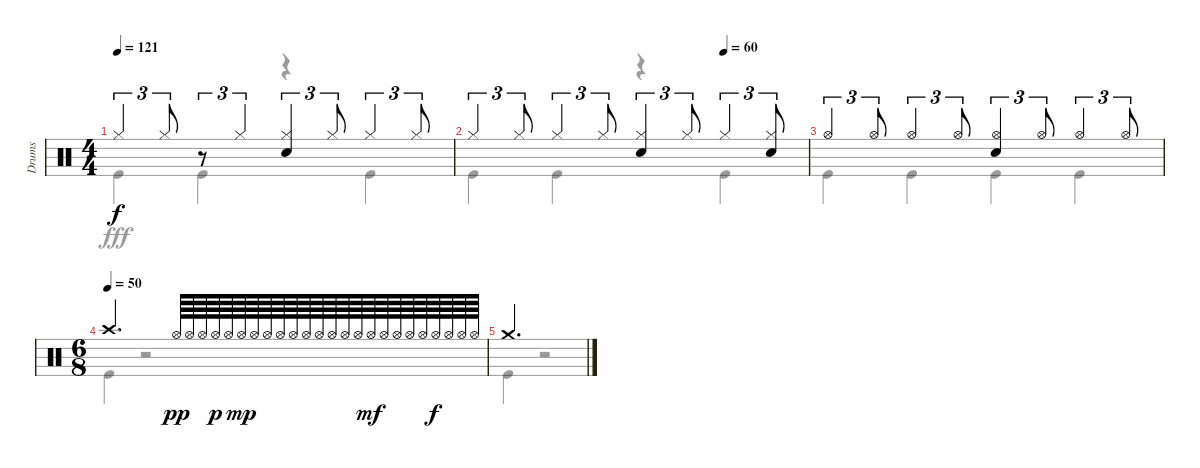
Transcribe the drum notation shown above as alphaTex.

\track ("Drums" "Drums") {instrument percussion}
\staff {score}
\articulation defaults
\voice
\ts (4 4)
\tempo 121
\clef neutral
\ks c "Hi-Hat (closed)".4{tu (3 2) dy f} "Hi-Hat (closed)".8{tu (3 2)}
r.8{tu (3 2)} "Hi-Hat (closed)".4{tu (3 2)} ("Hi-Hat (closed)" "Snare (hit) 2").4{tu (3 2)} "Hi-Hat (closed)".8{tu (3 2)} "Hi-Hat (closed)".4{tu (3 2)} "Hi-Hat (closed)".8{tu (3 2)} |
\tempo (60 0.75)
"Hi-Hat (closed)".4{tu (3 2)} "Hi-Hat (closed)".8{tu (3 2)} "Hi-Hat (closed)".4{tu (3 2)} "Hi-Hat (closed)".8{tu (3 2)} ("Hi-Hat (closed)" "Snare (hit) 2").4{tu (3 2)} "Hi-Hat (closed)".8{tu (3 2)} "Hi-Hat (closed)".4{tu (3 2)} ("Hi-Hat (closed)" "Snare (hit) 2").8{tu (3 2)} |
"Hi-Hat (open)".4{tu (3 2)} "Hi-Hat (open)".8{tu (3 2)} "Hi-Hat (open)".4{tu (3 2)} "Hi-Hat (open)".8{tu (3 2)} ("Hi-Hat (open)" "Snare (hit) 2").4{tu (3 2)} "Hi-Hat (open)".8{tu (3 2)} "Hi-Hat (open)".4{tu (3 2)} "Hi-Hat (open)".8{tu (3 2)} |
\ts (6 8)
\tempo (50)
"Crash high (hit)".4{d} "Hi-Hat (open)".64{dy pp} "Hi-Hat (open)".64 "Hi-Hat (open)".64 "Hi-Hat (open)".64{dy p} "Hi-Hat (open)".64 "Hi-Hat (open)".64{dy mp} "Hi-Hat (open)".64 "Hi-Hat (open)".64 "Hi-Hat (open)".64 "Hi-Hat (open)".64 "Hi-Hat (open)".64 "Hi-Hat (open)".64 "Hi-Hat (open)".64 "Hi-Hat (open)".64 "Hi-Hat (open)".64 "Hi-Hat (open)".64{dy mf} "Hi-Hat (open)".64 "Hi-Hat (open)".64 "Hi-Hat (open)".64 "Hi-Hat (open)".64 "Hi-Hat (open)".64{dy f} "Hi-Hat (open)".64 "Hi-Hat (open)".64 "Hi-Hat (open)".64 |
"Crash medium (hit)".2{d}
\voice
\clef neutral
\ottava regular
\simile none
\ks c "Kick (hit)".4{dy fff} "Kick (hit)".4
r.4 "Kick (hit)".4 |
"Kick (hit)".4 "Kick (hit)".4 r.4 "Kick (hit)".4 |
"Kick (hit)".4 "Kick (hit)".4 "Kick (hit)".4 "Kick (hit)".4 |
"Kick (hit)".4 r.2 |
"Kick (hit)".4 r.2
